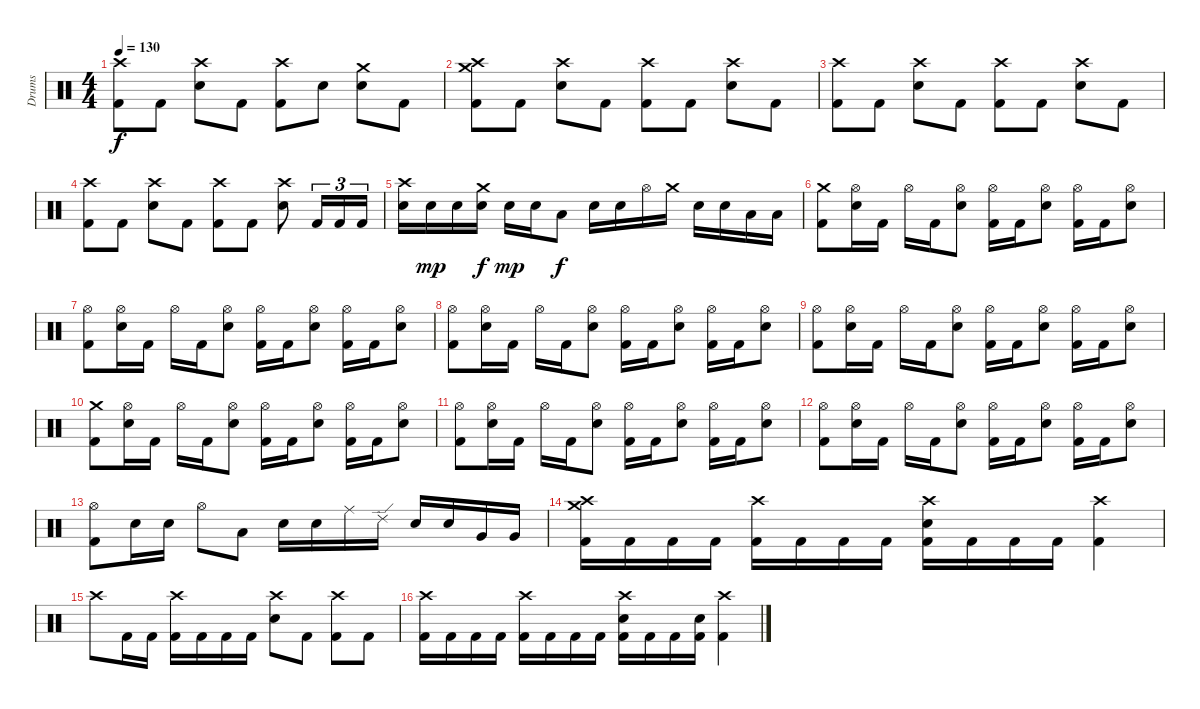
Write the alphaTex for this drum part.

\track ("Drums" "Drums") {instrument percussion}
\staff {score}
\articulation defaults
\ts (4 4)
\tempo 130
\clef neutral
\ks c
("Crash high (hit)" "Kick (hit) 2").8{dy f} "Kick (hit) 2".8 ("Crash high (hit)" "Electric Snare (hit)").8 "Kick (hit) 2".8 ("Crash high (hit)" "Kick (hit) 2").8 "Electric Snare (hit)".8 ("Crash medium (hit)" "Electric Snare (hit)").8 "Kick (hit) 2".8 |
("Crash high (hit)" "Crash medium (hit)" "Kick (hit) 2").8 "Kick (hit) 2".8 ("Crash high (hit)" "Electric Snare (hit)").8 "Kick (hit) 2".8 ("Crash high (hit)" "Kick (hit) 2").8 "Kick (hit) 2".8 ("Crash high (hit)" "Electric Snare (hit)").8 "Kick (hit) 2".8 |
("Crash high (hit)" "Kick (hit) 2").8 "Kick (hit) 2".8 ("Crash high (hit)" "Electric Snare (hit)").8 "Kick (hit) 2".8 ("Crash high (hit)" "Kick (hit) 2").8 "Kick (hit) 2".8 ("Crash high (hit)" "Electric Snare (hit)").8 "Kick (hit) 2".8 |
("Crash high (hit)" "Kick (hit) 2").8 "Kick (hit) 2".8 ("Crash high (hit)" "Electric Snare (hit)").8 "Kick (hit) 2".8 ("Crash high (hit)" "Kick (hit) 2").8 "Kick (hit) 2".8 ("Crash high (hit)" "Electric Snare (hit)").8 "Kick (hit) 2".16{tu (3 2)} "Kick (hit) 2".16{tu (3 2)} "Kick (hit) 2".16{tu (3 2)} |
("Crash high (hit)" "Electric Snare (hit)").16 "Electric Snare (hit)".16{dy mp} "Electric Snare (hit)".16 ("Crash medium (hit)" "Electric Snare (hit)").16{dy f} "Electric Snare (hit)".16{dy mp} "Electric Snare (hit)".16 "Low Tom (hit)".8{dy f} "Electric Snare (hit)".16 "Electric Snare (hit)".16 "Hi-Hat (open)".16 "Crash medium (hit)".16 "Electric Snare (hit)".16 "Electric Snare (hit)".16 "Low Tom (hit)".16 "Low Tom (hit)".16 |
("Crash medium (hit)" "Kick (hit) 2").8 ("Hi-Hat (open)" "Electric Snare (hit)").16 "Kick (hit) 2".16 "Hi-Hat (open)".16 "Kick (hit) 2".16 ("Hi-Hat (open)" "Electric Snare (hit)").8 ("Hi-Hat (open)" "Kick (hit) 2").16 "Kick (hit) 2".16 ("Hi-Hat (open)" "Electric Snare (hit)").8 ("Hi-Hat (open)" "Kick (hit) 2").16 "Kick (hit) 2".16 ("Hi-Hat (open)" "Electric Snare (hit)").8 |
("Hi-Hat (open)" "Kick (hit) 2").8 ("Hi-Hat (open)" "Electric Snare (hit)").16 "Kick (hit) 2".16 "Hi-Hat (open)".16 "Kick (hit) 2".16 ("Hi-Hat (open)" "Electric Snare (hit)").8 ("Hi-Hat (open)" "Kick (hit) 2").16 "Kick (hit) 2".16 ("Hi-Hat (open)" "Electric Snare (hit)").8 ("Hi-Hat (open)" "Kick (hit) 2").16 "Kick (hit) 2".16 ("Hi-Hat (open)" "Electric Snare (hit)").8 |
("Hi-Hat (open)" "Kick (hit) 2").8 ("Hi-Hat (open)" "Electric Snare (hit)").16 "Kick (hit) 2".16 "Hi-Hat (open)".16 "Kick (hit) 2".16 ("Hi-Hat (open)" "Electric Snare (hit)").8 ("Hi-Hat (open)" "Kick (hit) 2").16 "Kick (hit) 2".16 ("Hi-Hat (open)" "Electric Snare (hit)").8 ("Hi-Hat (open)" "Kick (hit) 2").16 "Kick (hit) 2".16 ("Hi-Hat (open)" "Electric Snare (hit)").8 |
("Hi-Hat (open)" "Kick (hit) 2").8 ("Hi-Hat (open)" "Electric Snare (hit)").16 "Kick (hit) 2".16 "Hi-Hat (open)".16 "Kick (hit) 2".16 ("Hi-Hat (open)" "Electric Snare (hit)").8 ("Hi-Hat (open)" "Kick (hit) 2").16 "Kick (hit) 2".16 ("Hi-Hat (open)" "Electric Snare (hit)").8 ("Hi-Hat (open)" "Kick (hit) 2").16 "Kick (hit) 2".16 ("Hi-Hat (open)" "Electric Snare (hit)").8 |
("Crash medium (hit)" "Kick (hit) 2").8 ("Hi-Hat (open)" "Electric Snare (hit)").16 "Kick (hit) 2".16 "Hi-Hat (open)".16 "Kick (hit) 2".16 ("Hi-Hat (open)" "Electric Snare (hit)").8 ("Hi-Hat (open)" "Kick (hit) 2").16 "Kick (hit) 2".16 ("Hi-Hat (open)" "Electric Snare (hit)").8 ("Hi-Hat (open)" "Kick (hit) 2").16 "Kick (hit) 2".16 ("Hi-Hat (open)" "Electric Snare (hit)").8 |
("Hi-Hat (open)" "Kick (hit) 2").8 ("Hi-Hat (open)" "Electric Snare (hit)").16 "Kick (hit) 2".16 "Hi-Hat (open)".16 "Kick (hit) 2".16 ("Hi-Hat (open)" "Electric Snare (hit)").8 ("Hi-Hat (open)" "Kick (hit) 2").16 "Kick (hit) 2".16 ("Hi-Hat (open)" "Electric Snare (hit)").8 ("Hi-Hat (open)" "Kick (hit) 2").16 "Kick (hit) 2".16 ("Hi-Hat (open)" "Electric Snare (hit)").8 |
("Hi-Hat (open)" "Kick (hit) 2").8 ("Hi-Hat (open)" "Electric Snare (hit)").16 "Kick (hit) 2".16 "Hi-Hat (open)".16 "Kick (hit) 2".16 ("Hi-Hat (open)" "Electric Snare (hit)").8 ("Hi-Hat (open)" "Kick (hit) 2").16 "Kick (hit) 2".16 ("Hi-Hat (open)" "Electric Snare (hit)").8 ("Hi-Hat (open)" "Kick (hit) 2").16 "Kick (hit) 2".16 ("Hi-Hat (open)" "Electric Snare (hit)").8 |
("Hi-Hat (open)" "Kick (hit) 2").8 "Electric Snare (hit)".16 "Electric Snare (hit)".16 "Hi-Hat (open)".8 "Low Tom (hit)".8 "Electric Snare (hit)".16 "Electric Snare (hit)".16 "Ride (middle)".16 "Ride (edge) 2".16 "Electric Snare (hit)".16 "Electric Snare (hit)".16 "Very Low Tom (hit)".16 "Very Low Tom (hit)".16 |
("Crash high (hit)" "Crash medium (hit)" "Kick (hit) 2").16 "Kick (hit) 2".16 "Kick (hit) 2".16 "Kick (hit) 2".16 ("Crash high (hit)" "Kick (hit) 2").16 "Kick (hit) 2".16 "Kick (hit) 2".16 "Kick (hit) 2".16 ("Crash high (hit)" "Electric Snare (hit)" "Kick (hit) 2").16 "Kick (hit) 2".16 "Kick (hit) 2".16 "Kick (hit) 2".16 ("Crash high (hit)" "Kick (hit) 2").4 |
"Crash high (hit)".8 "Kick (hit) 2".16 "Kick (hit) 2".16 ("Crash high (hit)" "Kick (hit) 2").16 "Kick (hit) 2".16 "Kick (hit) 2".16 "Kick (hit) 2".16 ("Crash high (hit)" "Electric Snare (hit)").8 "Kick (hit) 2".8 ("Crash high (hit)" "Kick (hit) 2").8 "Kick (hit) 2".8 |
("Crash high (hit)" "Kick (hit) 2").16 "Kick (hit) 2".16 "Kick (hit) 2".16 "Kick (hit) 2".16 ("Crash high (hit)" "Kick (hit) 2").16 "Kick (hit) 2".16 "Kick (hit) 2".16 "Kick (hit) 2".16 ("Crash high (hit)" "Electric Snare (hit)" "Kick (hit) 2").16 "Kick (hit) 2".16 "Kick (hit) 2".16 ("Electric Snare (hit)" "Kick (hit) 2").16 ("Crash high (hit)" "Kick (hit) 2").4
